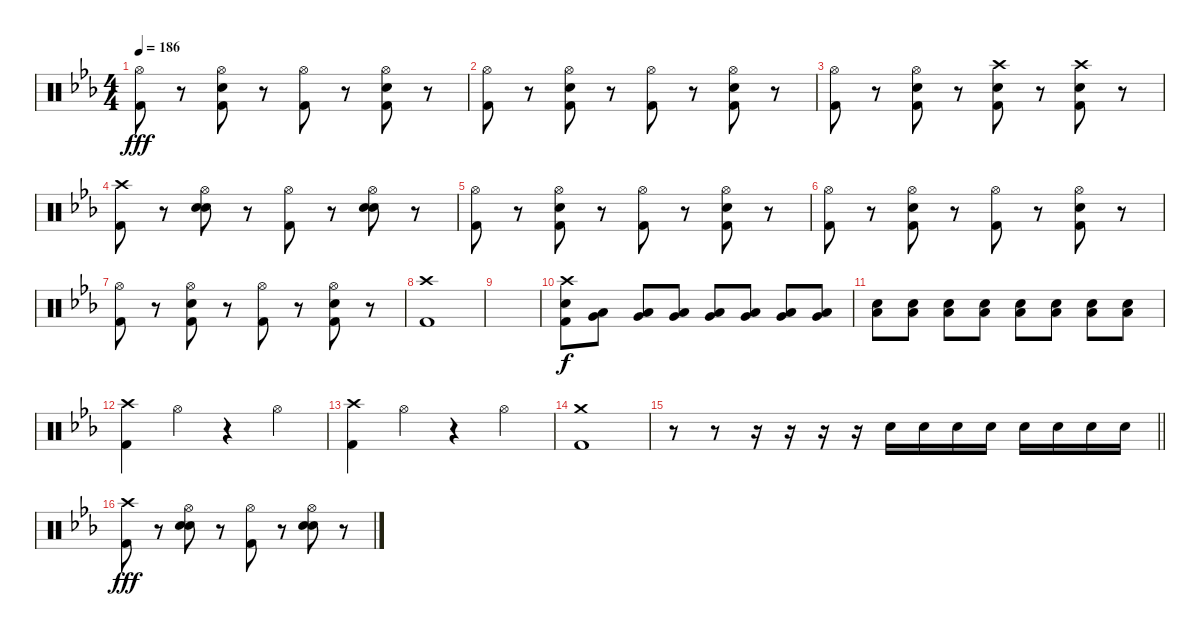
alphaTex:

\track "" {instrument percussion}
\staff {score}
\articulation defaults
\ts (4 4)
\tempo 186
\clef neutral
\ks eb
("Hi-Hat (open)" "Kick (hit) 2").8{dy fff} r.8 ("Hi-Hat (open)" "Snare (hit) 2" "Kick (hit) 2").8 r.8 ("Hi-Hat (open)" "Kick (hit) 2").8 r.8 ("Hi-Hat (open)" "Snare (hit) 2" "Kick (hit) 2").8 r.8 |
("Hi-Hat (open)" "Kick (hit) 2").8 r.8 ("Hi-Hat (open)" "Snare (hit) 2" "Kick (hit) 2").8 r.8 ("Hi-Hat (open)" "Kick (hit) 2").8 r.8 ("Hi-Hat (open)" "Snare (hit) 2" "Kick (hit) 2").8 r.8 |
("Hi-Hat (open)" "Kick (hit) 2").8 r.8 ("Hi-Hat (open)" "Snare (hit) 2" "Kick (hit) 2").8 r.8 ("Crash high (hit)" "Snare (hit) 2" "Kick (hit) 2").8 r.8 ("Crash high (hit)" "Snare (hit) 2" "Kick (hit) 2").8 r.8 |
("Crash high (hit)" "Kick (hit) 2").8 r.8 ("Hi-Hat (open)" "Snare (hit) 2" "Snare (hit) 2").8 r.8 ("Hi-Hat (open)" "Kick (hit) 2").8 r.8 ("Hi-Hat (open)" "Snare (hit) 2" "Snare (hit) 2").8 r.8 |
("Hi-Hat (open)" "Kick (hit) 2").8 r.8 ("Hi-Hat (open)" "Snare (hit) 2" "Kick (hit) 2").8 r.8 ("Hi-Hat (open)" "Kick (hit) 2").8 r.8 ("Hi-Hat (open)" "Snare (hit) 2" "Kick (hit) 2").8 r.8 |
("Hi-Hat (open)" "Kick (hit) 2").8 r.8 ("Hi-Hat (open)" "Snare (hit) 2" "Kick (hit) 2").8 r.8 ("Hi-Hat (open)" "Kick (hit) 2").8 r.8 ("Hi-Hat (open)" "Snare (hit) 2" "Kick (hit) 2").8 r.8 |
("Hi-Hat (open)" "Kick (hit) 2").8 r.8 ("Hi-Hat (open)" "Snare (hit) 2" "Kick (hit) 2").8 r.8 ("Hi-Hat (open)" "Kick (hit) 2").8 r.8 ("Hi-Hat (open)" "Snare (hit) 2" "Kick (hit) 2").8 r.8 |
("Crash high (hit)" "Kick (hit) 2").1 |
|
("Crash high (hit)" "Snare (hit) 2" "Kick (hit) 2").8{dy f} ("Low Tom (hit)" "Very Low Tom (hit)").8 ("Low Tom (hit)" "Very Low Tom (hit)").8 ("Low Tom (hit)" "Very Low Tom (hit)").8 ("Low Tom (hit)" "Very Low Tom (hit)").8 ("Low Tom (hit)" "Very Low Tom (hit)").8 ("Low Tom (hit)" "Very Low Tom (hit)").8 ("Low Tom (hit)" "Very Low Tom (hit)").8 |
("Snare (hit) 2" "Low Tom (hit)").8 ("Snare (hit) 2" "Low Tom (hit)").8 ("Snare (hit) 2" "Low Tom (hit)").8 ("Snare (hit) 2" "Low Tom (hit)").8 ("Snare (hit) 2" "Low Tom (hit)").8 ("Snare (hit) 2" "Low Tom (hit)").8 ("Snare (hit) 2" "Low Tom (hit)").8 ("Snare (hit) 2" "Low Tom (hit)").8 |
("Crash high (hit)" "Kick (hit) 2").4 "Hi-Hat (open)".4 r.4 "Hi-Hat (open)".4 |
("Crash high (hit)" "Kick (hit) 2").4 "Hi-Hat (open)".4 r.4 "Hi-Hat (open)".4 |
("Crash medium (hit)" "Kick (hit) 2").1 |
\barLineRight lightlight
r.8 r.8 r.16 r.16 r.16 r.16 "Snare (hit) 2".16 "Snare (hit) 2".16 "Snare (hit) 2".16 "Snare (hit) 2".16 "Snare (hit) 2".16 "Snare (hit) 2".16 "Snare (hit) 2".16 "Snare (hit) 2".16 |
("Crash high (hit)" "Kick (hit) 2").8{dy fff} r.8 ("Hi-Hat (open)" "Snare (hit) 2" "Snare (hit) 2").8 r.8 ("Hi-Hat (open)" "Kick (hit) 2").8 r.8 ("Hi-Hat (open)" "Snare (hit) 2" "Snare (hit) 2").8 r.8
